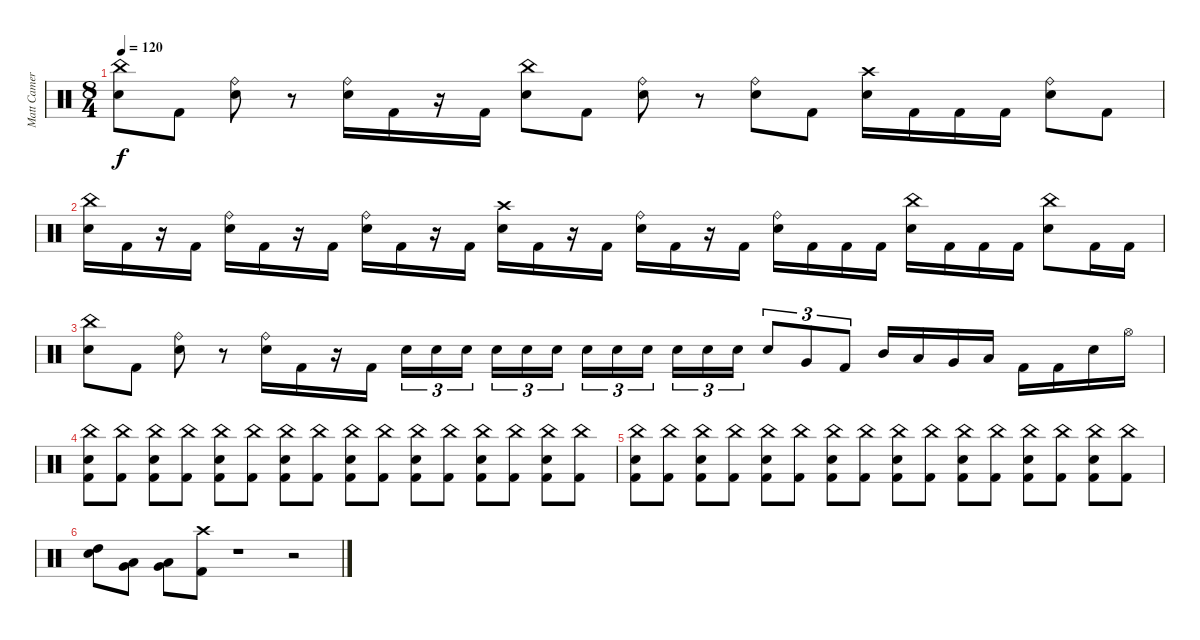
\track ("Matt Cameron (Drums)" "Matt Camer") {instrument percussion}
\staff {score}
\articulation defaults
\ts (8 4)
\tempo 120
\clef neutral
\ks c
("China (hit)" "Electric Snare (hit)").8{dy f} "Kick (hit) 2".8 ("Ride (bell)" "Electric Snare (hit)").8 r.8 ("Ride (bell)" "Electric Snare (hit)").16 "Kick (hit) 2".16 r.16 "Kick (hit) 2".16 ("China (hit)" "Electric Snare (hit)").8 "Kick (hit) 2".8 ("Ride (bell)" "Electric Snare (hit)").8 r.8 ("Ride (bell)" "Electric Snare (hit)").8 "Kick (hit) 2".8 ("Crash high (hit)" "Electric Snare (hit)").16 "Kick (hit) 2".16 "Kick (hit) 2".16 "Kick (hit) 2".16 ("Ride (bell)" "Electric Snare (hit)").8 "Kick (hit) 2".8 |
("China (hit)" "Electric Snare (hit)").16 "Kick (hit) 2".16 r.16 "Kick (hit) 2".16 ("Ride (bell)" "Electric Snare (hit)").16 "Kick (hit) 2".16 r.16 "Kick (hit) 2".16 ("Ride (bell)" "Electric Snare (hit)").16 "Kick (hit) 2".16 r.16 "Kick (hit) 2".16 ("Crash high (hit)" "Electric Snare (hit)").16 "Kick (hit) 2".16 r.16 "Kick (hit) 2".16 ("Ride (bell)" "Electric Snare (hit)").16 "Kick (hit) 2".16 r.16 "Kick (hit) 2".16 ("Ride (bell)" "Electric Snare (hit)").16 "Kick (hit) 2".16 "Kick (hit) 2".16 "Kick (hit) 2".16 ("China (hit)" "Electric Snare (hit)").16 "Kick (hit) 2".16 "Kick (hit) 2".16 "Kick (hit) 2".16 ("China (hit)" "Electric Snare (hit)").8 "Kick (hit) 2".16 "Kick (hit) 2".16 |
("China (hit)" "Electric Snare (hit)").8 "Kick (hit) 2".8 ("Ride (bell)" "Electric Snare (hit)").8 r.8 ("Ride (bell)" "Electric Snare (hit)").16 "Kick (hit) 2".16 r.16 "Kick (hit) 2".16 "Electric Snare (hit)".16{tu (3 2)} "Electric Snare (hit)".16{tu (3 2)} "Electric Snare (hit)".16{tu (3 2)} "Electric Snare (hit)".16{tu (3 2)} "Electric Snare (hit)".16{tu (3 2)} "Electric Snare (hit)".16{tu (3 2)} "Electric Snare (hit)".16{tu (3 2)} "Electric Snare (hit)".16{tu (3 2)} "Electric Snare (hit)".16{tu (3 2)} "Electric Snare (hit)".16{tu (3 2)} "Electric Snare (hit)".16{tu (3 2)} "Electric Snare (hit)".16{tu (3 2)} "Electric Snare (hit)".8{tu (3 2)} "Very Low Tom (hit)".8{tu (3 2)} "Kick (hit) 2".8{tu (3 2)} "Mid Tom (hit)".16 "Low Tom (hit)".16 "Very Low Tom (hit)".16 "Low Floor Tom (hit)".16 "Kick (hit) 2".16 "Kick (hit) 2".16 "Electric Snare (hit)".16 "Hi-Hat (open)".16 |
("China (hit)" "Electric Snare (hit)" "Kick (hit) 2").8 ("China (hit)" "Kick (hit) 2").8 ("China (hit)" "Electric Snare (hit)" "Kick (hit) 2").8 ("China (hit)" "Kick (hit) 2").8 ("China (hit)" "Electric Snare (hit)" "Kick (hit) 2").8 ("China (hit)" "Kick (hit) 2").8 ("China (hit)" "Electric Snare (hit)" "Kick (hit) 2").8 ("China (hit)" "Kick (hit) 2").8 ("China (hit)" "Electric Snare (hit)" "Kick (hit) 2").8 ("China (hit)" "Kick (hit) 2").8 ("China (hit)" "Electric Snare (hit)" "Kick (hit) 2").8 ("China (hit)" "Kick (hit) 2").8 ("China (hit)" "Electric Snare (hit)" "Kick (hit) 2").8 ("China (hit)" "Kick (hit) 2").8 ("China (hit)" "Electric Snare (hit)" "Kick (hit) 2").8 ("China (hit)" "Kick (hit) 2").8 |
("China (hit)" "Electric Snare (hit)" "Kick (hit) 2").8 ("China (hit)" "Kick (hit) 2").8 ("China (hit)" "Electric Snare (hit)" "Kick (hit) 2").8 ("China (hit)" "Kick (hit) 2").8 ("China (hit)" "Electric Snare (hit)" "Kick (hit) 2").8 ("China (hit)" "Kick (hit) 2").8 ("China (hit)" "Electric Snare (hit)" "Kick (hit) 2").8 ("China (hit)" "Kick (hit) 2").8 ("China (hit)" "Electric Snare (hit)" "Kick (hit) 2").8 ("China (hit)" "Kick (hit) 2").8 ("China (hit)" "Electric Snare (hit)" "Kick (hit) 2").8 ("China (hit)" "Kick (hit) 2").8 ("China (hit)" "Electric Snare (hit)" "Kick (hit) 2").8 ("China (hit)" "Kick (hit) 2").8 ("China (hit)" "Electric Snare (hit)" "Kick (hit) 2").8 ("China (hit)" "Kick (hit) 2").8 |
("Electric Snare (hit)" "High Tom (hit)").8 ("Very Low Tom (hit)" "Low Tom (hit)").8 ("Very Low Tom (hit)" "Low Floor Tom (hit)").8 ("Crash high (hit)" "Kick (hit) 2").8 r.1 r.2
